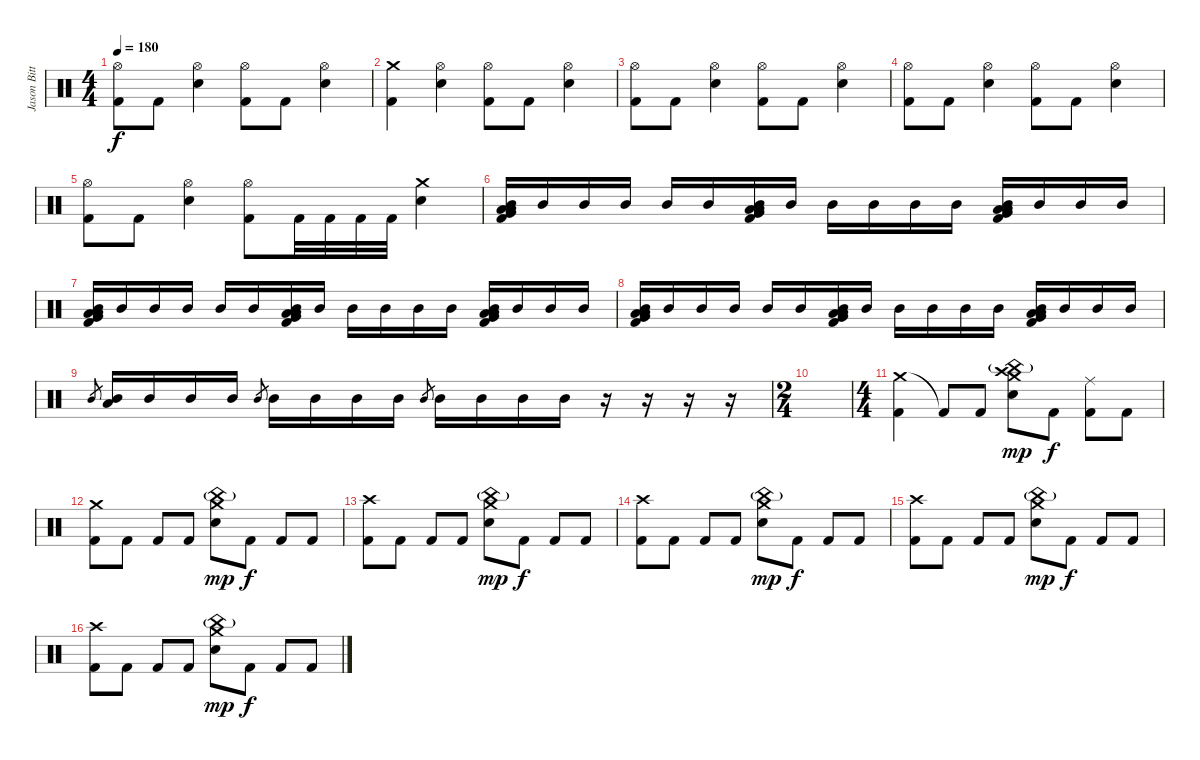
\track ("Jason Bittner" "Jason Bitt") {instrument percussion}
\staff {score}
\articulation defaults
\ts (4 4)
\tempo 180
\clef neutral
\ks c
("Hi-Hat (open)" "Kick (hit) 2").8{dy f} "Kick (hit) 2".8 ("Hi-Hat (open)" "Electric Snare (hit)").4 ("Hi-Hat (open)" "Kick (hit) 2").8 "Kick (hit) 2".8 ("Hi-Hat (open)" "Electric Snare (hit)").4 |
("Crash medium (hit)" "Kick (hit) 2").4 ("Hi-Hat (open)" "Electric Snare (hit)").4 ("Hi-Hat (open)" "Kick (hit) 2").8 "Kick (hit) 2".8 ("Hi-Hat (open)" "Electric Snare (hit)").4 |
("Hi-Hat (open)" "Kick (hit) 2").8 "Kick (hit) 2".8 ("Hi-Hat (open)" "Electric Snare (hit)").4 ("Hi-Hat (open)" "Kick (hit) 2").8 "Kick (hit) 2".8 ("Hi-Hat (open)" "Electric Snare (hit)").4 |
("Hi-Hat (open)" "Kick (hit) 2").8 "Kick (hit) 2".8 ("Hi-Hat (open)" "Electric Snare (hit)").4 ("Hi-Hat (open)" "Kick (hit) 2").8 "Kick (hit) 2".8 ("Hi-Hat (open)" "Electric Snare (hit)").4 |
("Hi-Hat (open)" "Kick (hit) 2").8 "Kick (hit) 2".8 ("Hi-Hat (open)" "Electric Snare (hit)").4 ("Hi-Hat (open)" "Kick (hit) 2").8 "Kick (hit) 2".32 "Kick (hit) 2".32 "Kick (hit) 2".32 "Kick (hit) 2".32 ("Crash medium (hit)" "Electric Snare (hit)").4 |
("Kick (hit) 2" "Low Floor Tom (hit)" "Very Low Tom (hit)" "Low Tom (hit)" "Mid Tom (hit)").16 "Mid Tom (hit)".16 "Mid Tom (hit)".16 "Mid Tom (hit)".16 "Mid Tom (hit)".16 "Mid Tom (hit)".16 ("Kick (hit) 2" "Low Floor Tom (hit)" "Very Low Tom (hit)" "Low Tom (hit)" "Mid Tom (hit)").16 "Mid Tom (hit)".16 "Mid Tom (hit)".16 "Mid Tom (hit)".16 "Mid Tom (hit)".16 "Mid Tom (hit)".16 ("Kick (hit) 2" "Low Floor Tom (hit)" "Very Low Tom (hit)" "Low Tom (hit)" "Mid Tom (hit)").16 "Mid Tom (hit)".16 "Mid Tom (hit)".16 "Mid Tom (hit)".16 |
("Kick (hit) 2" "Low Floor Tom (hit)" "Very Low Tom (hit)" "Low Tom (hit)" "Mid Tom (hit)").16 "Mid Tom (hit)".16 "Mid Tom (hit)".16 "Mid Tom (hit)".16 "Mid Tom (hit)".16 "Mid Tom (hit)".16 ("Kick (hit) 2" "Low Floor Tom (hit)" "Very Low Tom (hit)" "Low Tom (hit)" "Mid Tom (hit)").16 "Mid Tom (hit)".16 "Mid Tom (hit)".16 "Mid Tom (hit)".16 "Mid Tom (hit)".16 "Mid Tom (hit)".16 ("Kick (hit) 2" "Low Floor Tom (hit)" "Very Low Tom (hit)" "Low Tom (hit)" "Mid Tom (hit)").16 "Mid Tom (hit)".16 "Mid Tom (hit)".16 "Mid Tom (hit)".16 |
("Kick (hit) 2" "Low Floor Tom (hit)" "Very Low Tom (hit)" "Low Tom (hit)" "Mid Tom (hit)").16 "Mid Tom (hit)".16 "Mid Tom (hit)".16 "Mid Tom (hit)".16 "Mid Tom (hit)".16 "Mid Tom (hit)".16 ("Kick (hit) 2" "Low Floor Tom (hit)" "Very Low Tom (hit)" "Low Tom (hit)" "Mid Tom (hit)").16 "Mid Tom (hit)".16 "Mid Tom (hit)".16 "Mid Tom (hit)".16 "Mid Tom (hit)".16 "Mid Tom (hit)".16 ("Kick (hit) 2" "Low Floor Tom (hit)" "Very Low Tom (hit)" "Low Tom (hit)" "Mid Tom (hit)").16 "Mid Tom (hit)".16 "Mid Tom (hit)".16 "Mid Tom (hit)".16 |
"Mid Tom (hit)".8{gr} ("Low Tom (hit)" "Mid Tom (hit)").16 "Mid Tom (hit)".16 "Mid Tom (hit)".16 "Mid Tom (hit)".16 "Mid Tom (hit)".8{gr} "Mid Tom (hit)".16 "Mid Tom (hit)".16 "Mid Tom (hit)".16 "Mid Tom (hit)".16 "Mid Tom (hit)".8{gr} "Mid Tom (hit)".16 "Mid Tom (hit)".16 "Mid Tom (hit)".16 "Mid Tom (hit)".16 r.16 r.16 r.16 r.16 |
\ts (2 4)
|
\ts (4 4)
("Crash medium (hit)" "Kick (hit) 2").4 "Kick (hit) 2"{t}.8 "Kick (hit) 2".8 ("Crash high (hit)" "China (hit)"{g} "Crash medium (hit)" "Electric Snare (hit)").8{dy mp} "Kick (hit) 2".8{dy f} ("Ride (middle)" "Kick (hit) 2").8 "Kick (hit) 2".8 |
("Crash medium (hit)" "Kick (hit) 2").8 "Kick (hit) 2".8 "Kick (hit) 2".8 "Kick (hit) 2".8 ("China (hit)"{g} "Crash medium (hit)" "Electric Snare (hit)").8{dy mp} "Kick (hit) 2".8{dy f} "Kick (hit) 2".8 "Kick (hit) 2".8 |
("Crash high (hit)" "Kick (hit) 2").8 "Kick (hit) 2".8 "Kick (hit) 2".8 "Kick (hit) 2".8 ("China (hit)"{g} "Crash medium (hit)" "Electric Snare (hit)").8{dy mp} "Kick (hit) 2".8{dy f} "Kick (hit) 2".8 "Kick (hit) 2".8 |
("Crash high (hit)" "Kick (hit) 2").8 "Kick (hit) 2".8 "Kick (hit) 2".8 "Kick (hit) 2".8 ("China (hit)"{g} "Crash medium (hit)" "Electric Snare (hit)").8{dy mp} "Kick (hit) 2".8{dy f} "Kick (hit) 2".8 "Kick (hit) 2".8 |
("Crash high (hit)" "Kick (hit) 2").8 "Kick (hit) 2".8 "Kick (hit) 2".8 "Kick (hit) 2".8 ("China (hit)"{g} "Crash medium (hit)" "Electric Snare (hit)").8{dy mp} "Kick (hit) 2".8{dy f} "Kick (hit) 2".8 "Kick (hit) 2".8 |
("Crash high (hit)" "Kick (hit) 2").8 "Kick (hit) 2".8 "Kick (hit) 2".8 "Kick (hit) 2".8 ("China (hit)"{g} "Crash medium (hit)" "Electric Snare (hit)").8{dy mp} "Kick (hit) 2".8{dy f} "Kick (hit) 2".8 "Kick (hit) 2".8
